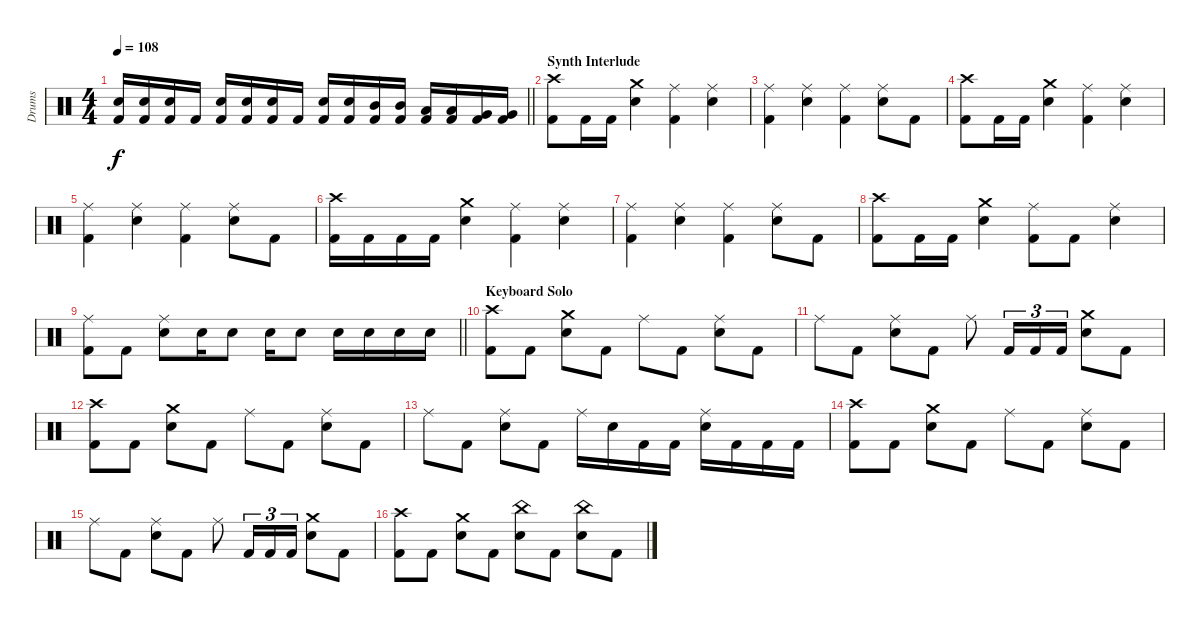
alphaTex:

\track ("Drums" "Drums") {instrument percussion}
\staff {score}
\articulation defaults
\ts (4 4)
\tempo 108
\clef neutral
\barLineRight lightlight
\ks c
("Electric Snare (hit)" "Kick (hit) 2").16{dy f} ("Electric Snare (hit)" "Kick (hit) 2").16 ("Electric Snare (hit)" "Kick (hit) 2").16 "Kick (hit) 2".16 ("Electric Snare (hit)" "Kick (hit) 2").16 ("Electric Snare (hit)" "Kick (hit) 2").16 ("Electric Snare (hit)" "Kick (hit) 2").16 "Kick (hit) 2".16 ("Electric Snare (hit)" "Kick (hit) 2").16 ("Electric Snare (hit)" "Kick (hit) 2").16 ("Mid Tom (hit)" "Kick (hit) 2").16 ("Mid Tom (hit)" "Kick (hit) 2").16 ("Low Tom (hit)" "Kick (hit) 2").16 ("Low Tom (hit)" "Kick (hit) 2").16 ("Very Low Tom (hit)" "Kick (hit) 2").16 ("Very Low Tom (hit)" "Kick (hit) 2").16 |
\section ("" "Synth Interlude")
("Crash high (hit)" "Kick (hit) 2").8 "Kick (hit) 2".16 "Kick (hit) 2".16 ("Crash medium (hit)" "Electric Snare (hit)").4 ("Ride (middle)" "Kick (hit) 2").4 ("Ride (middle)" "Electric Snare (hit)").4 |
("Ride (middle)" "Kick (hit) 2").4 ("Ride (middle)" "Electric Snare (hit)").4 ("Ride (middle)" "Kick (hit) 2").4 ("Ride (middle)" "Electric Snare (hit)").8 "Kick (hit) 2".8 |
("Crash high (hit)" "Kick (hit) 2").8 "Kick (hit) 2".16 "Kick (hit) 2".16 ("Crash medium (hit)" "Electric Snare (hit)").4 ("Ride (middle)" "Kick (hit) 2").4 ("Ride (middle)" "Electric Snare (hit)").4 |
("Ride (middle)" "Kick (hit) 2").4 ("Ride (middle)" "Electric Snare (hit)").4 ("Ride (middle)" "Kick (hit) 2").4 ("Ride (middle)" "Electric Snare (hit)").8 "Kick (hit) 2".8 |
("Crash high (hit)" "Kick (hit) 2").16 "Kick (hit) 2".16 "Kick (hit) 2".16 "Kick (hit) 2".16 ("Crash medium (hit)" "Electric Snare (hit)").4 ("Ride (middle)" "Kick (hit) 2").4 ("Ride (middle)" "Electric Snare (hit)").4 |
("Ride (middle)" "Kick (hit) 2").4 ("Ride (middle)" "Electric Snare (hit)").4 ("Ride (middle)" "Kick (hit) 2").4 ("Ride (middle)" "Electric Snare (hit)").8 "Kick (hit) 2".8 |
("Crash high (hit)" "Kick (hit) 2").8 "Kick (hit) 2".16 "Kick (hit) 2".16 ("Crash medium (hit)" "Electric Snare (hit)").4 ("Ride (middle)" "Kick (hit) 2").8 "Kick (hit) 2".8 ("Ride (middle)" "Electric Snare (hit)").4 |
\barLineRight lightlight
("Ride (middle)" "Kick (hit) 2").8 "Kick (hit) 2".8 ("Ride (middle)" "Electric Snare (hit)").8 "Electric Snare (hit)".16 "Electric Snare (hit)".8 "Electric Snare (hit)".16 "Electric Snare (hit)".8 "Electric Snare (hit)".16 "Electric Snare (hit)".16 "Electric Snare (hit)".16 "Electric Snare (hit)".16 |
\section ("" "Keyboard Solo")
("Crash high (hit)" "Kick (hit) 2").8 "Kick (hit) 2".8 ("Crash medium (hit)" "Electric Snare (hit)").8 "Kick (hit) 2".8 "Ride (middle)".8 "Kick (hit) 2".8 ("Ride (middle)" "Electric Snare (hit)").8 "Kick (hit) 2".8 |
"Ride (middle)".8 "Kick (hit) 2".8 ("Ride (middle)" "Electric Snare (hit)").8 "Kick (hit) 2".8 "Ride (middle)".8 "Kick (hit) 2".16{tu (3 2)} "Kick (hit) 2".16{tu (3 2)} "Kick (hit) 2".16{tu (3 2)} ("Crash medium (hit)" "Electric Snare (hit)").8 "Kick (hit) 2".8 |
("Crash high (hit)" "Kick (hit) 2").8 "Kick (hit) 2".8 ("Crash medium (hit)" "Electric Snare (hit)").8 "Kick (hit) 2".8 "Ride (middle)".8 "Kick (hit) 2".8 ("Ride (middle)" "Electric Snare (hit)").8 "Kick (hit) 2".8 |
"Ride (middle)".8 "Kick (hit) 2".8 ("Ride (middle)" "Electric Snare (hit)").8 "Kick (hit) 2".8 "Ride (middle)".16 "Electric Snare (hit)".16 "Kick (hit) 2".16 "Kick (hit) 2".16 ("Ride (middle)" "Electric Snare (hit)").16 "Kick (hit) 2".16 "Kick (hit) 2".16 "Kick (hit) 2".16 |
("Crash high (hit)" "Kick (hit) 2").8 "Kick (hit) 2".8 ("Crash medium (hit)" "Electric Snare (hit)").8 "Kick (hit) 2".8 "Ride (middle)".8 "Kick (hit) 2".8 ("Ride (middle)" "Electric Snare (hit)").8 "Kick (hit) 2".8 |
"Ride (middle)".8 "Kick (hit) 2".8 ("Ride (middle)" "Electric Snare (hit)").8 "Kick (hit) 2".8 "Ride (middle)".8 "Kick (hit) 2".16{tu (3 2)} "Kick (hit) 2".16{tu (3 2)} "Kick (hit) 2".16{tu (3 2)} ("Crash medium (hit)" "Electric Snare (hit)").8 "Kick (hit) 2".8 |
("Crash high (hit)" "Kick (hit) 2").8 "Kick (hit) 2".8 ("Crash medium (hit)" "Electric Snare (hit)").8 "Kick (hit) 2".8 ("China (hit)" "Electric Snare (hit)").8 "Kick (hit) 2".8 ("China (hit)" "Electric Snare (hit)").8 "Kick (hit) 2".8
